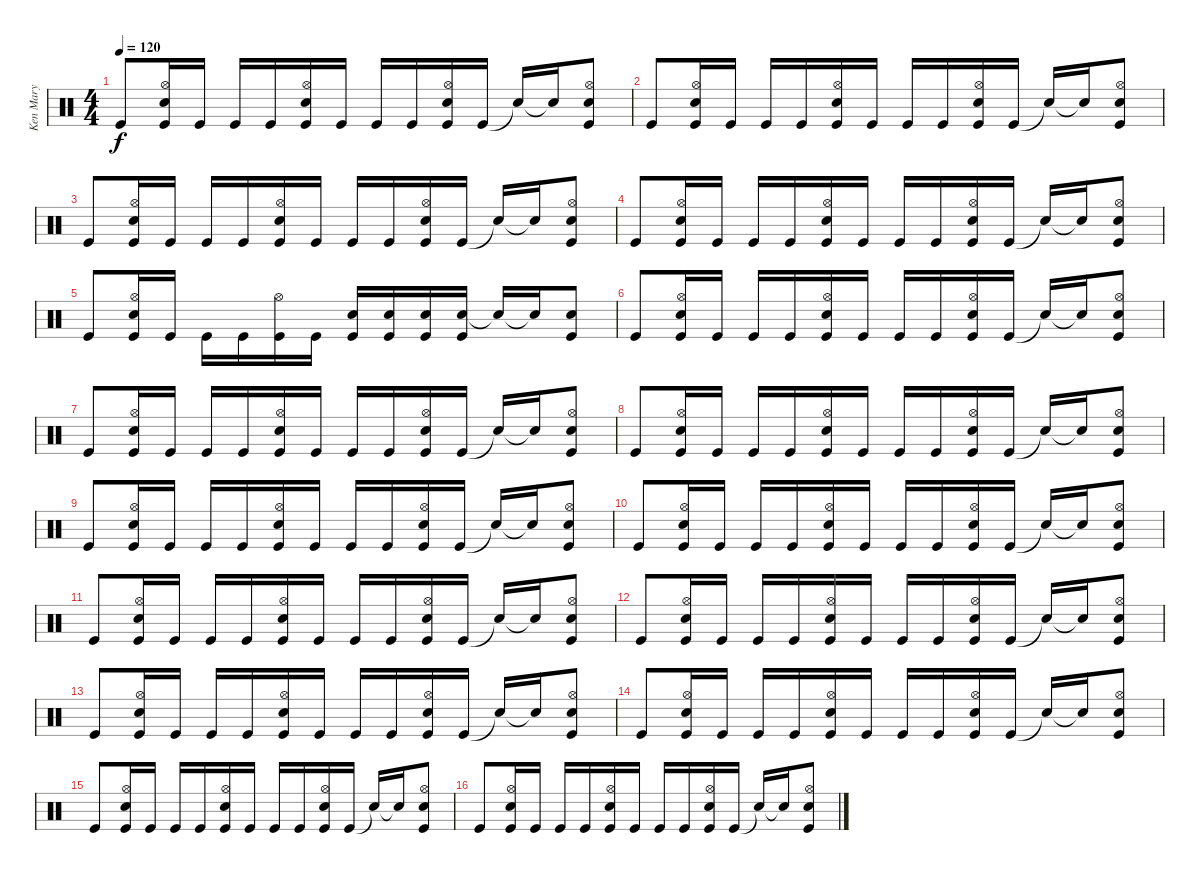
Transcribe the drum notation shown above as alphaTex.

\track ("Ken Mary" "Ken Mary") {instrument percussion}
\staff {score}
\articulation defaults
\ts (4 4)
\tempo 120
\clef neutral
\ks c "Kick (hit)".8{dy f}
("Hi-Hat (open)" "Snare (hit) 2" "Kick (hit)").16 "Kick (hit)".16 "Kick (hit)".16 "Kick (hit)".16 ("Hi-Hat (open)" "Snare (hit) 2" "Kick (hit)").16 "Kick (hit)".16 "Kick (hit)".16 "Kick (hit)".16 ("Hi-Hat (open)" "Snare (hit) 2" "Kick (hit)").16 "Kick (hit)".16 "Snare (hit)"{t}.16 "Snare (hit)"{t}.16 ("Snare (hit) 2" "Hi-Hat (open)" "Kick (hit)").8 |
"Kick (hit)".8 ("Hi-Hat (open)" "Snare (hit) 2" "Kick (hit)").16 "Kick (hit)".16 "Kick (hit)".16 "Kick (hit)".16 ("Hi-Hat (open)" "Snare (hit) 2" "Kick (hit)").16 "Kick (hit)".16 "Kick (hit)".16 "Kick (hit)".16 ("Hi-Hat (open)" "Snare (hit) 2" "Kick (hit)").16 "Kick (hit)".16 "Snare (hit)"{t}.16 "Snare (hit)"{t}.16 ("Snare (hit) 2" "Hi-Hat (open)" "Kick (hit)").8 |
"Kick (hit)".8 ("Hi-Hat (open)" "Snare (hit) 2" "Kick (hit)").16 "Kick (hit)".16 "Kick (hit)".16 "Kick (hit)".16 ("Hi-Hat (open)" "Snare (hit) 2" "Kick (hit)").16 "Kick (hit)".16 "Kick (hit)".16 "Kick (hit)".16 ("Hi-Hat (open)" "Snare (hit) 2" "Kick (hit)").16 "Kick (hit)".16 "Snare (hit)"{t}.16 "Snare (hit)"{t}.16 ("Snare (hit) 2" "Hi-Hat (open)" "Kick (hit)").8 |
"Kick (hit)".8 ("Hi-Hat (open)" "Snare (hit) 2" "Kick (hit)").16 "Kick (hit)".16 "Kick (hit)".16 "Kick (hit)".16 ("Hi-Hat (open)" "Snare (hit) 2" "Kick (hit)").16 "Kick (hit)".16 "Kick (hit)".16 "Kick (hit)".16 ("Hi-Hat (open)" "Snare (hit) 2" "Kick (hit)").16 "Kick (hit)".16 "Snare (hit)"{t}.16 "Snare (hit)"{t}.16 ("Snare (hit) 2" "Hi-Hat (open)" "Kick (hit)").8 |
"Kick (hit)".8 ("Hi-Hat (open)" "Snare (hit) 2" "Kick (hit)").16 "Kick (hit)".16 "Kick (hit)".16 "Kick (hit)".16 ("Hi-Hat (open)" "Kick (hit)").16 "Kick (hit)".16 ("Snare (hit) 2" "Kick (hit)").16 ("Snare (hit) 2" "Kick (hit)").16 ("Snare (hit) 2" "Kick (hit)").16 ("Snare (hit) 2" "Kick (hit)").16 "Snare (hit)"{t}.16 "Snare (hit)"{t}.16 ("Snare (hit) 2" "Kick (hit)").8 |
"Kick (hit)".8 ("Hi-Hat (open)" "Snare (hit) 2" "Kick (hit)").16 "Kick (hit)".16 "Kick (hit)".16 "Kick (hit)".16 ("Hi-Hat (open)" "Snare (hit) 2" "Kick (hit)").16 "Kick (hit)".16 "Kick (hit)".16 "Kick (hit)".16 ("Hi-Hat (open)" "Snare (hit) 2" "Kick (hit)").16 "Kick (hit)".16 "Snare (hit)"{t}.16 "Snare (hit)"{t}.16 ("Snare (hit) 2" "Hi-Hat (open)" "Kick (hit)").8 |
"Kick (hit)".8 ("Hi-Hat (open)" "Snare (hit) 2" "Kick (hit)").16 "Kick (hit)".16 "Kick (hit)".16 "Kick (hit)".16 ("Hi-Hat (open)" "Snare (hit) 2" "Kick (hit)").16 "Kick (hit)".16 "Kick (hit)".16 "Kick (hit)".16 ("Hi-Hat (open)" "Snare (hit) 2" "Kick (hit)").16 "Kick (hit)".16 "Snare (hit)"{t}.16 "Snare (hit)"{t}.16 ("Snare (hit) 2" "Hi-Hat (open)" "Kick (hit)").8 |
"Kick (hit)".8 ("Hi-Hat (open)" "Snare (hit) 2" "Kick (hit)").16 "Kick (hit)".16 "Kick (hit)".16 "Kick (hit)".16 ("Hi-Hat (open)" "Snare (hit) 2" "Kick (hit)").16 "Kick (hit)".16 "Kick (hit)".16 "Kick (hit)".16 ("Hi-Hat (open)" "Snare (hit) 2" "Kick (hit)").16 "Kick (hit)".16 "Snare (hit)"{t}.16 "Snare (hit)"{t}.16 ("Snare (hit) 2" "Hi-Hat (open)" "Kick (hit)").8 |
"Kick (hit)".8 ("Hi-Hat (open)" "Snare (hit) 2" "Kick (hit)").16 "Kick (hit)".16 "Kick (hit)".16 "Kick (hit)".16 ("Hi-Hat (open)" "Snare (hit) 2" "Kick (hit)").16 "Kick (hit)".16 "Kick (hit)".16 "Kick (hit)".16 ("Hi-Hat (open)" "Snare (hit) 2" "Kick (hit)").16 "Kick (hit)".16 "Snare (hit)"{t}.16 "Snare (hit)"{t}.16 ("Snare (hit) 2" "Hi-Hat (open)" "Kick (hit)").8 |
"Kick (hit)".8 ("Hi-Hat (open)" "Snare (hit) 2" "Kick (hit)").16 "Kick (hit)".16 "Kick (hit)".16 "Kick (hit)".16 ("Hi-Hat (open)" "Snare (hit) 2" "Kick (hit)").16 "Kick (hit)".16 "Kick (hit)".16 "Kick (hit)".16 ("Hi-Hat (open)" "Snare (hit) 2" "Kick (hit)").16 "Kick (hit)".16 "Snare (hit)"{t}.16 "Snare (hit)"{t}.16 ("Snare (hit) 2" "Hi-Hat (open)" "Kick (hit)").8 |
"Kick (hit)".8 ("Hi-Hat (open)" "Snare (hit) 2" "Kick (hit)").16 "Kick (hit)".16 "Kick (hit)".16 "Kick (hit)".16 ("Hi-Hat (open)" "Snare (hit) 2" "Kick (hit)").16 "Kick (hit)".16 "Kick (hit)".16 "Kick (hit)".16 ("Hi-Hat (open)" "Snare (hit) 2" "Kick (hit)").16 "Kick (hit)".16 "Snare (hit)"{t}.16 "Snare (hit)"{t}.16 ("Snare (hit) 2" "Hi-Hat (open)" "Kick (hit)").8 |
"Kick (hit)".8 ("Hi-Hat (open)" "Snare (hit) 2" "Kick (hit)").16 "Kick (hit)".16 "Kick (hit)".16 "Kick (hit)".16 ("Hi-Hat (open)" "Snare (hit) 2" "Kick (hit)").16 "Kick (hit)".16 "Kick (hit)".16 "Kick (hit)".16 ("Hi-Hat (open)" "Snare (hit) 2" "Kick (hit)").16 "Kick (hit)".16 "Snare (hit)"{t}.16 "Snare (hit)"{t}.16 ("Snare (hit) 2" "Hi-Hat (open)" "Kick (hit)").8 |
"Kick (hit)".8 ("Hi-Hat (open)" "Snare (hit) 2" "Kick (hit)").16 "Kick (hit)".16 "Kick (hit)".16 "Kick (hit)".16 ("Hi-Hat (open)" "Snare (hit) 2" "Kick (hit)").16 "Kick (hit)".16 "Kick (hit)".16 "Kick (hit)".16 ("Hi-Hat (open)" "Snare (hit) 2" "Kick (hit)").16 "Kick (hit)".16 "Snare (hit)"{t}.16 "Snare (hit)"{t}.16 ("Snare (hit) 2" "Hi-Hat (open)" "Kick (hit)").8 |
"Kick (hit)".8 ("Hi-Hat (open)" "Snare (hit) 2" "Kick (hit)").16 "Kick (hit)".16 "Kick (hit)".16 "Kick (hit)".16 ("Hi-Hat (open)" "Snare (hit) 2" "Kick (hit)").16 "Kick (hit)".16 "Kick (hit)".16 "Kick (hit)".16 ("Hi-Hat (open)" "Snare (hit) 2" "Kick (hit)").16 "Kick (hit)".16 "Snare (hit)"{t}.16 "Snare (hit)"{t}.16 ("Snare (hit) 2" "Hi-Hat (open)" "Kick (hit)").8 |
"Kick (hit)".8 ("Hi-Hat (open)" "Snare (hit) 2" "Kick (hit)").16 "Kick (hit)".16 "Kick (hit)".16 "Kick (hit)".16 ("Hi-Hat (open)" "Snare (hit) 2" "Kick (hit)").16 "Kick (hit)".16 "Kick (hit)".16 "Kick (hit)".16 ("Hi-Hat (open)" "Snare (hit) 2" "Kick (hit)").16 "Kick (hit)".16 "Snare (hit)"{t}.16 "Snare (hit)"{t}.16 ("Snare (hit) 2" "Hi-Hat (open)" "Kick (hit)").8 |
"Kick (hit)".8 ("Hi-Hat (open)" "Snare (hit) 2" "Kick (hit)").16 "Kick (hit)".16 "Kick (hit)".16 "Kick (hit)".16 ("Hi-Hat (open)" "Snare (hit) 2" "Kick (hit)").16 "Kick (hit)".16 "Kick (hit)".16 "Kick (hit)".16 ("Hi-Hat (open)" "Snare (hit) 2" "Kick (hit)").16 "Kick (hit)".16 "Snare (hit)"{t}.16 "Snare (hit)"{t}.16 ("Snare (hit) 2" "Hi-Hat (open)" "Kick (hit)").8
